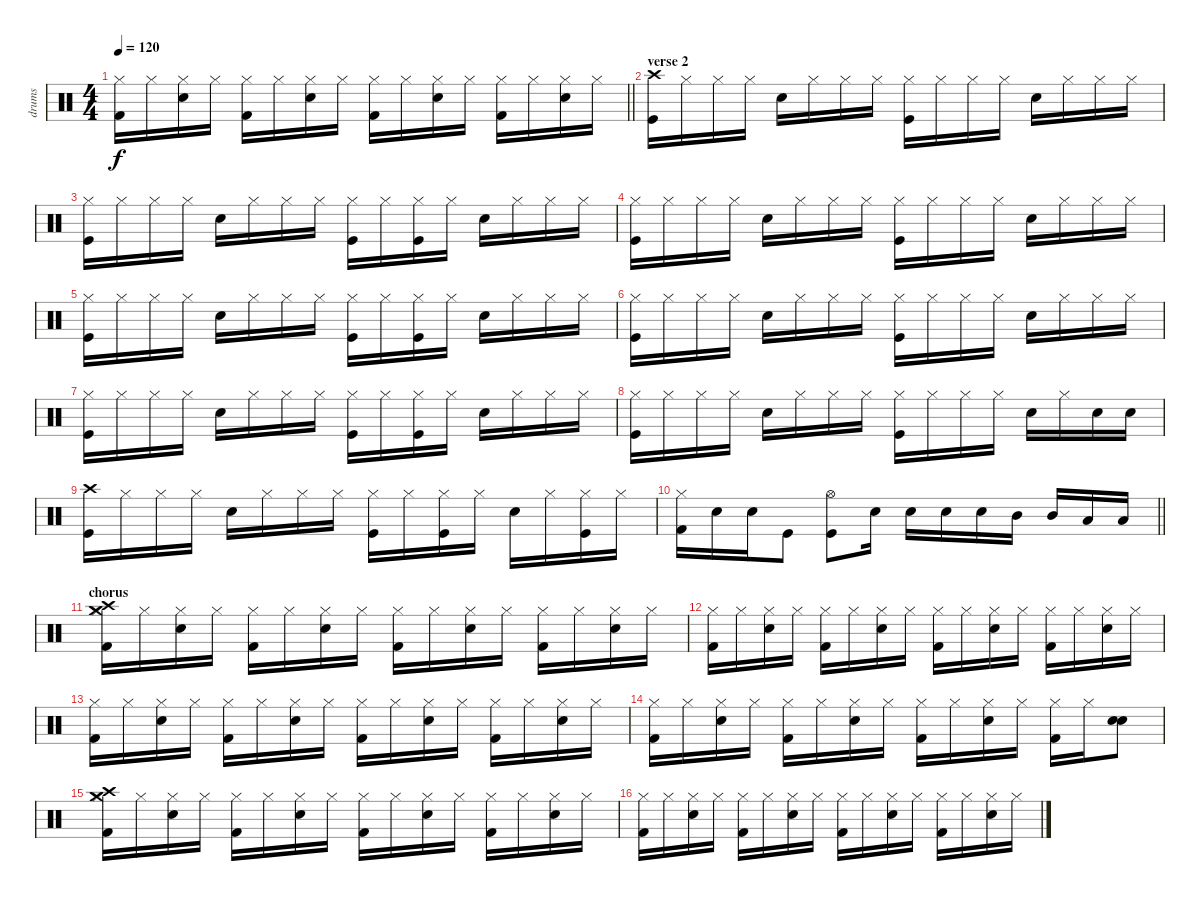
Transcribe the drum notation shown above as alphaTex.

\track ("drums" "drums") {instrument percussion}
\staff {score}
\articulation defaults
\ts (4 4)
\tempo 120
\clef neutral
\barLineRight lightlight
\ks c
("Hi-Hat (closed)" "Kick (hit) 2").16{dy f} "Hi-Hat (closed)".16 ("Hi-Hat (closed)" "Electric Snare (hit)").16 "Hi-Hat (closed)".16 ("Hi-Hat (closed)" "Kick (hit) 2").16 "Hi-Hat (closed)".16 ("Hi-Hat (closed)" "Electric Snare (hit)").16 "Hi-Hat (closed)".16 ("Hi-Hat (closed)" "Kick (hit) 2").16 "Hi-Hat (closed)".16 ("Hi-Hat (closed)" "Electric Snare (hit)").16 "Hi-Hat (closed)".16 ("Hi-Hat (closed)" "Kick (hit) 2").16 "Hi-Hat (closed)".16 ("Hi-Hat (closed)" "Electric Snare (hit)").16 "Hi-Hat (closed)".16 |
\section ("" "verse 2")
("Crash high (hit)" "Kick (hit)").16 "Hi-Hat (closed)".16 "Hi-Hat (closed)".16 "Hi-Hat (closed)".16 "Snare (hit) 2".16 "Hi-Hat (closed)".16 "Hi-Hat (closed)".16 "Hi-Hat (closed)".16 ("Hi-Hat (closed)" "Kick (hit)").16 "Hi-Hat (closed)".16 "Hi-Hat (closed)".16 "Hi-Hat (closed)".16 "Snare (hit) 2".16 "Hi-Hat (closed)".16 "Hi-Hat (closed)".16 "Hi-Hat (closed)".16 |
("Hi-Hat (closed)" "Kick (hit)").16 "Hi-Hat (closed)".16 "Hi-Hat (closed)".16 "Hi-Hat (closed)".16 "Snare (hit) 2".16 "Hi-Hat (closed)".16 "Hi-Hat (closed)".16 "Hi-Hat (closed)".16 ("Hi-Hat (closed)" "Kick (hit)").16 "Hi-Hat (closed)".16 ("Hi-Hat (closed)" "Kick (hit)").16 "Hi-Hat (closed)".16 "Snare (hit) 2".16 "Hi-Hat (closed)".16 "Hi-Hat (closed)".16 "Hi-Hat (closed)".16 |
("Hi-Hat (closed)" "Kick (hit)").16 "Hi-Hat (closed)".16 "Hi-Hat (closed)".16 "Hi-Hat (closed)".16 "Snare (hit) 2".16 "Hi-Hat (closed)".16 "Hi-Hat (closed)".16 "Hi-Hat (closed)".16 ("Hi-Hat (closed)" "Kick (hit)").16 "Hi-Hat (closed)".16 "Hi-Hat (closed)".16 "Hi-Hat (closed)".16 "Snare (hit) 2".16 "Hi-Hat (closed)".16 "Hi-Hat (closed)".16 "Hi-Hat (closed)".16 |
("Hi-Hat (closed)" "Kick (hit)").16 "Hi-Hat (closed)".16 "Hi-Hat (closed)".16 "Hi-Hat (closed)".16 "Snare (hit) 2".16 "Hi-Hat (closed)".16 "Hi-Hat (closed)".16 "Hi-Hat (closed)".16 ("Hi-Hat (closed)" "Kick (hit)").16 "Hi-Hat (closed)".16 ("Hi-Hat (closed)" "Kick (hit)").16 "Hi-Hat (closed)".16 "Snare (hit) 2".16 "Hi-Hat (closed)".16 "Hi-Hat (closed)".16 "Hi-Hat (closed)".16 |
("Hi-Hat (closed)" "Kick (hit)").16 "Hi-Hat (closed)".16 "Hi-Hat (closed)".16 "Hi-Hat (closed)".16 "Snare (hit) 2".16 "Hi-Hat (closed)".16 "Hi-Hat (closed)".16 "Hi-Hat (closed)".16 ("Hi-Hat (closed)" "Kick (hit)").16 "Hi-Hat (closed)".16 "Hi-Hat (closed)".16 "Hi-Hat (closed)".16 "Snare (hit) 2".16 "Hi-Hat (closed)".16 "Hi-Hat (closed)".16 "Hi-Hat (closed)".16 |
("Hi-Hat (closed)" "Kick (hit)").16 "Hi-Hat (closed)".16 "Hi-Hat (closed)".16 "Hi-Hat (closed)".16 "Snare (hit) 2".16 "Hi-Hat (closed)".16 "Hi-Hat (closed)".16 "Hi-Hat (closed)".16 ("Hi-Hat (closed)" "Kick (hit)").16 "Hi-Hat (closed)".16 ("Hi-Hat (closed)" "Kick (hit)").16 "Hi-Hat (closed)".16 "Snare (hit) 2".16 "Hi-Hat (closed)".16 "Hi-Hat (closed)".16 "Hi-Hat (closed)".16 |
("Hi-Hat (closed)" "Kick (hit)").16 "Hi-Hat (closed)".16 "Hi-Hat (closed)".16 "Hi-Hat (closed)".16 "Snare (hit) 2".16 "Hi-Hat (closed)".16 "Hi-Hat (closed)".16 "Hi-Hat (closed)".16 ("Hi-Hat (closed)" "Kick (hit)").16 "Hi-Hat (closed)".16 "Hi-Hat (closed)".16 "Hi-Hat (closed)".16 "Snare (hit) 2".16 "Hi-Hat (closed)".16 "Snare (hit) 2".16 "Snare (hit) 2".16 |
("Crash high (hit)" "Kick (hit)").16 "Hi-Hat (closed)".16 "Hi-Hat (closed)".16 "Hi-Hat (closed)".16 "Snare (hit) 2".16 "Hi-Hat (closed)".16 "Hi-Hat (closed)".16 "Hi-Hat (closed)".16 ("Hi-Hat (closed)" "Kick (hit)").16 "Hi-Hat (closed)".16 ("Hi-Hat (closed)" "Kick (hit)").16 "Hi-Hat (closed)".16 "Snare (hit) 2".16 "Hi-Hat (closed)".16 ("Hi-Hat (closed)" "Kick (hit)").16 "Hi-Hat (closed)".16 |
\barLineRight lightlight
("Hi-Hat (closed)" "Kick (hit) 2").16 "Snare (hit) 2".16 "Snare (hit) 2".16 "Kick (hit)".8 ("Hi-Hat (open)" "Kick (hit)").8 "Snare (hit) 2".16 "Snare (hit) 2".16 "Snare (hit) 2".16 "Snare (hit) 2".16 "Mid Tom (hit)".16 "Mid Tom (hit)".16 "Low Tom (hit)".16 "Low Tom (hit)".16 |
\section ("" "chorus")
("Crash medium (hit)" "Hi-Hat (closed)" "Crash high (hit)" "Kick (hit) 2").16 "Hi-Hat (closed)".16 ("Hi-Hat (closed)" "Electric Snare (hit)").16 "Hi-Hat (closed)".16 ("Hi-Hat (closed)" "Kick (hit) 2").16 "Hi-Hat (closed)".16 ("Hi-Hat (closed)" "Electric Snare (hit)").16 "Hi-Hat (closed)".16 ("Hi-Hat (closed)" "Kick (hit) 2").16 "Hi-Hat (closed)".16 ("Hi-Hat (closed)" "Electric Snare (hit)").16 "Hi-Hat (closed)".16 ("Hi-Hat (closed)" "Kick (hit) 2").16 "Hi-Hat (closed)".16 ("Hi-Hat (closed)" "Electric Snare (hit)").16 "Hi-Hat (closed)".16 |
("Hi-Hat (closed)" "Kick (hit) 2").16 "Hi-Hat (closed)".16 ("Hi-Hat (closed)" "Electric Snare (hit)").16 "Hi-Hat (closed)".16 ("Hi-Hat (closed)" "Kick (hit) 2").16 "Hi-Hat (closed)".16 ("Hi-Hat (closed)" "Electric Snare (hit)").16 "Hi-Hat (closed)".16 ("Hi-Hat (closed)" "Kick (hit) 2").16 "Hi-Hat (closed)".16 ("Hi-Hat (closed)" "Electric Snare (hit)").16 "Hi-Hat (closed)".16 ("Hi-Hat (closed)" "Kick (hit) 2").16 "Hi-Hat (closed)".16 ("Hi-Hat (closed)" "Electric Snare (hit)").16 "Hi-Hat (closed)".16 |
("Hi-Hat (closed)" "Kick (hit) 2").16 "Hi-Hat (closed)".16 ("Hi-Hat (closed)" "Electric Snare (hit)").16 "Hi-Hat (closed)".16 ("Hi-Hat (closed)" "Kick (hit) 2").16 "Hi-Hat (closed)".16 ("Hi-Hat (closed)" "Electric Snare (hit)").16 "Hi-Hat (closed)".16 ("Hi-Hat (closed)" "Kick (hit) 2").16 "Hi-Hat (closed)".16 ("Hi-Hat (closed)" "Electric Snare (hit)").16 "Hi-Hat (closed)".16 ("Hi-Hat (closed)" "Kick (hit) 2").16 "Hi-Hat (closed)".16 ("Hi-Hat (closed)" "Electric Snare (hit)").16 "Hi-Hat (closed)".16 |
("Hi-Hat (closed)" "Kick (hit) 2").16 "Hi-Hat (closed)".16 ("Hi-Hat (closed)" "Electric Snare (hit)").16 "Hi-Hat (closed)".16 ("Hi-Hat (closed)" "Kick (hit) 2").16 "Hi-Hat (closed)".16 ("Hi-Hat (closed)" "Electric Snare (hit)").16 "Hi-Hat (closed)".16 ("Hi-Hat (closed)" "Kick (hit) 2").16 "Hi-Hat (closed)".16 ("Hi-Hat (closed)" "Electric Snare (hit)").16 "Hi-Hat (closed)".16 ("Hi-Hat (closed)" "Kick (hit) 2").16 "Hi-Hat (closed)".16 ("Electric Snare (hit)" "Electric Snare (hit)").8 |
("Crash medium (hit)" "Hi-Hat (closed)" "Crash high (hit)" "Kick (hit) 2").16 "Hi-Hat (closed)".16 ("Hi-Hat (closed)" "Electric Snare (hit)").16 "Hi-Hat (closed)".16 ("Hi-Hat (closed)" "Kick (hit) 2").16 "Hi-Hat (closed)".16 ("Hi-Hat (closed)" "Electric Snare (hit)").16 "Hi-Hat (closed)".16 ("Hi-Hat (closed)" "Kick (hit) 2").16 "Hi-Hat (closed)".16 ("Hi-Hat (closed)" "Electric Snare (hit)").16 "Hi-Hat (closed)".16 ("Hi-Hat (closed)" "Kick (hit) 2").16 "Hi-Hat (closed)".16 ("Hi-Hat (closed)" "Electric Snare (hit)").16 "Hi-Hat (closed)".16 |
("Hi-Hat (closed)" "Kick (hit) 2").16 "Hi-Hat (closed)".16 ("Hi-Hat (closed)" "Electric Snare (hit)").16 "Hi-Hat (closed)".16 ("Hi-Hat (closed)" "Kick (hit) 2").16 "Hi-Hat (closed)".16 ("Hi-Hat (closed)" "Electric Snare (hit)").16 "Hi-Hat (closed)".16 ("Hi-Hat (closed)" "Kick (hit) 2").16 "Hi-Hat (closed)".16 ("Hi-Hat (closed)" "Electric Snare (hit)").16 "Hi-Hat (closed)".16 ("Hi-Hat (closed)" "Kick (hit) 2").16 "Hi-Hat (closed)".16 ("Hi-Hat (closed)" "Electric Snare (hit)").16 "Hi-Hat (closed)".16
